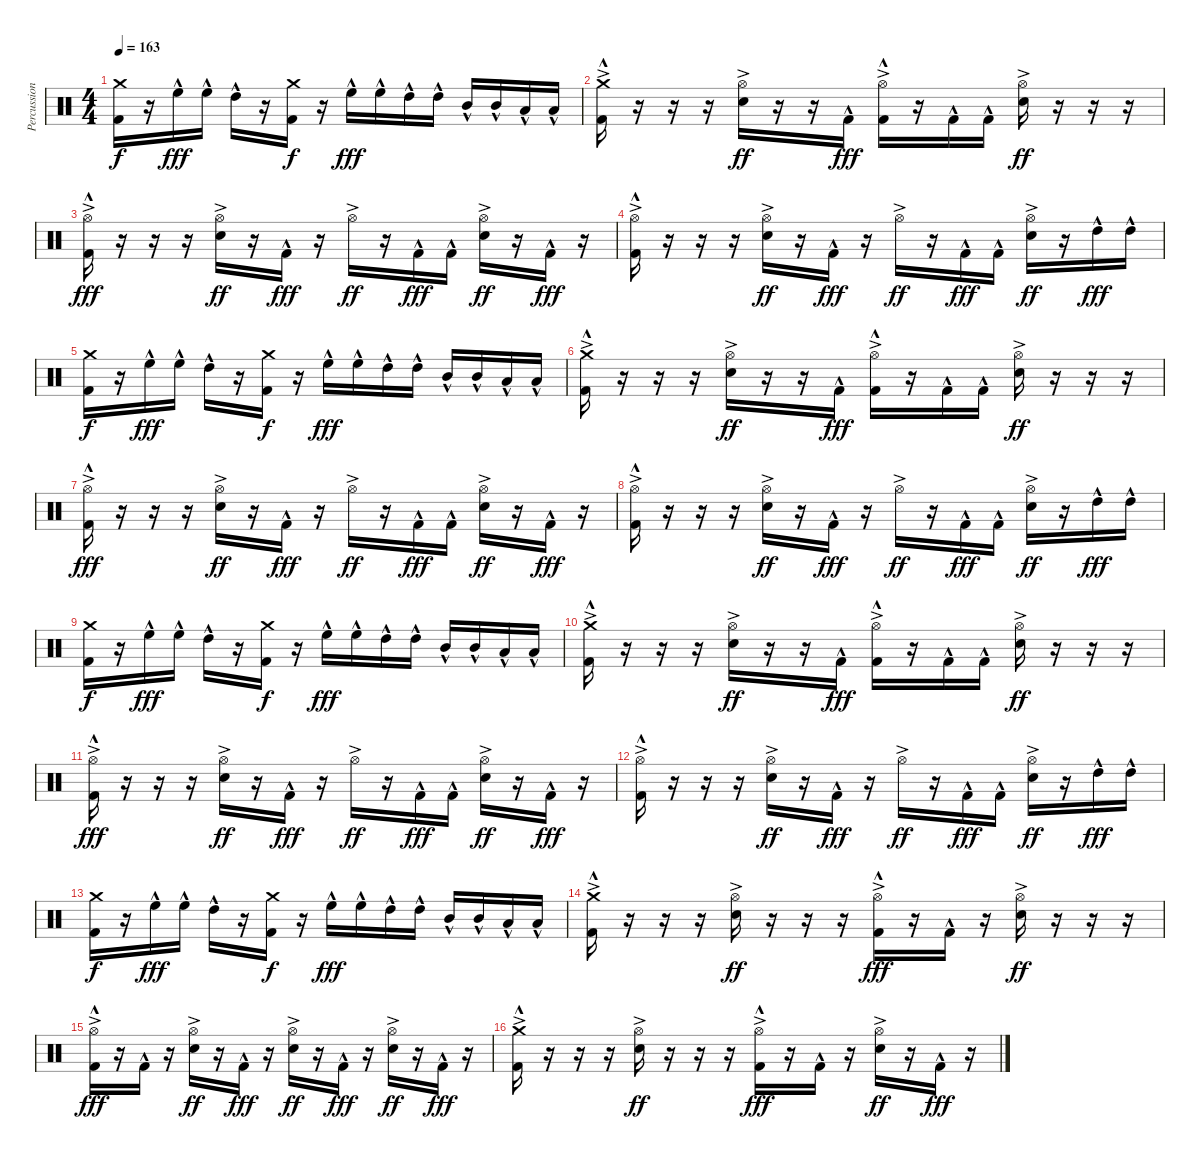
\track ("Percussion" "Percussion") {instrument percussion}
\staff {score}
\articulation defaults
\ts (4 4)
\tempo 163
\clef neutral
\ks c
("Crash medium (hit)" "Kick (hit) 2").16{dy f} r.16 "High Floor Tom (hit)"{hac}.16{dy fff} "High Floor Tom (hit)"{hac}.16 "High Tom (hit)"{hac}.16 r.16 ("Crash medium (hit)" "Kick (hit) 2").16{dy f} r.16 "High Floor Tom (hit)"{hac}.16{dy fff} "High Floor Tom (hit)"{hac}.16 "High Tom (hit)"{hac}.16 "High Tom (hit)"{hac}.16 "Mid Tom (hit)"{hac}.16 "Mid Tom (hit)"{hac}.16 "Low Tom (hit)"{hac}.16 "Low Tom (hit)"{hac}.16 |
("Crash medium (hit)"{ac} "Kick (hit) 2"{hac}).16 r.16 r.16 r.16 ("Hi-Hat (open)"{ac} "Snare (hit) 2"{ac}).16{dy ff} r.16 r.16 "Kick (hit) 2"{hac}.16{dy fff} ("Hi-Hat (open)"{ac} "Kick (hit) 2"{hac}).16 r.16 "Kick (hit) 2"{hac}.16 "Kick (hit) 2"{hac}.16 ("Hi-Hat (open)"{ac} "Snare (hit) 2"{ac}).16{dy ff} r.16 r.16 r.16 |
("Hi-Hat (open)"{ac} "Kick (hit) 2"{hac}).16{dy fff} r.16 r.16 r.16 ("Hi-Hat (open)"{ac} "Snare (hit) 2"{ac}).16{dy ff} r.16 "Kick (hit) 2"{hac}.16{dy fff} r.16 "Hi-Hat (open)"{ac}.16{dy ff} r.16 "Kick (hit) 2"{hac}.16{dy fff} "Kick (hit) 2"{hac}.16 ("Hi-Hat (open)"{ac} "Snare (hit) 2"{ac}).16{dy ff} r.16 "Kick (hit) 2"{hac}.16{dy fff} r.16 |
("Hi-Hat (open)"{ac} "Kick (hit) 2"{hac}).16 r.16 r.16 r.16 ("Hi-Hat (open)"{ac} "Snare (hit) 2"{ac}).16{dy ff} r.16 "Kick (hit) 2"{hac}.16{dy fff} r.16 "Hi-Hat (open)"{ac}.16{dy ff} r.16 "Kick (hit) 2"{hac}.16{dy fff} "Kick (hit) 2"{hac}.16 ("Hi-Hat (open)"{ac} "Snare (hit) 2"{ac}).16{dy ff} r.16 "High Tom (hit)"{hac}.16{dy fff} "High Tom (hit)"{hac}.16 |
("Crash medium (hit)" "Kick (hit) 2").16{dy f} r.16 "High Floor Tom (hit)"{hac}.16{dy fff} "High Floor Tom (hit)"{hac}.16 "High Tom (hit)"{hac}.16 r.16 ("Crash medium (hit)" "Kick (hit) 2").16{dy f} r.16 "High Floor Tom (hit)"{hac}.16{dy fff} "High Floor Tom (hit)"{hac}.16 "High Tom (hit)"{hac}.16 "High Tom (hit)"{hac}.16 "Mid Tom (hit)"{hac}.16 "Mid Tom (hit)"{hac}.16 "Low Tom (hit)"{hac}.16 "Low Tom (hit)"{hac}.16 |
("Crash medium (hit)"{ac} "Kick (hit) 2"{hac}).16 r.16 r.16 r.16 ("Hi-Hat (open)"{ac} "Snare (hit) 2"{ac}).16{dy ff} r.16 r.16 "Kick (hit) 2"{hac}.16{dy fff} ("Hi-Hat (open)"{ac} "Kick (hit) 2"{hac}).16 r.16 "Kick (hit) 2"{hac}.16 "Kick (hit) 2"{hac}.16 ("Hi-Hat (open)"{ac} "Snare (hit) 2"{ac}).16{dy ff} r.16 r.16 r.16 |
("Hi-Hat (open)"{ac} "Kick (hit) 2"{hac}).16{dy fff} r.16 r.16 r.16 ("Hi-Hat (open)"{ac} "Snare (hit) 2"{ac}).16{dy ff} r.16 "Kick (hit) 2"{hac}.16{dy fff} r.16 "Hi-Hat (open)"{ac}.16{dy ff} r.16 "Kick (hit) 2"{hac}.16{dy fff} "Kick (hit) 2"{hac}.16 ("Hi-Hat (open)"{ac} "Snare (hit) 2"{ac}).16{dy ff} r.16 "Kick (hit) 2"{hac}.16{dy fff} r.16 |
("Hi-Hat (open)"{ac} "Kick (hit) 2"{hac}).16 r.16 r.16 r.16 ("Hi-Hat (open)"{ac} "Snare (hit) 2"{ac}).16{dy ff} r.16 "Kick (hit) 2"{hac}.16{dy fff} r.16 "Hi-Hat (open)"{ac}.16{dy ff} r.16 "Kick (hit) 2"{hac}.16{dy fff} "Kick (hit) 2"{hac}.16 ("Hi-Hat (open)"{ac} "Snare (hit) 2"{ac}).16{dy ff} r.16 "High Tom (hit)"{hac}.16{dy fff} "High Tom (hit)"{hac}.16 |
("Crash medium (hit)" "Kick (hit) 2").16{dy f} r.16 "High Floor Tom (hit)"{hac}.16{dy fff} "High Floor Tom (hit)"{hac}.16 "High Tom (hit)"{hac}.16 r.16 ("Crash medium (hit)" "Kick (hit) 2").16{dy f} r.16 "High Floor Tom (hit)"{hac}.16{dy fff} "High Floor Tom (hit)"{hac}.16 "High Tom (hit)"{hac}.16 "High Tom (hit)"{hac}.16 "Mid Tom (hit)"{hac}.16 "Mid Tom (hit)"{hac}.16 "Low Tom (hit)"{hac}.16 "Low Tom (hit)"{hac}.16 |
("Crash medium (hit)"{ac} "Kick (hit) 2"{hac}).16 r.16 r.16 r.16 ("Hi-Hat (open)"{ac} "Snare (hit) 2"{ac}).16{dy ff} r.16 r.16 "Kick (hit) 2"{hac}.16{dy fff} ("Hi-Hat (open)"{ac} "Kick (hit) 2"{hac}).16 r.16 "Kick (hit) 2"{hac}.16 "Kick (hit) 2"{hac}.16 ("Hi-Hat (open)"{ac} "Snare (hit) 2"{ac}).16{dy ff} r.16 r.16 r.16 |
("Hi-Hat (open)"{ac} "Kick (hit) 2"{hac}).16{dy fff} r.16 r.16 r.16 ("Hi-Hat (open)"{ac} "Snare (hit) 2"{ac}).16{dy ff} r.16 "Kick (hit) 2"{hac}.16{dy fff} r.16 "Hi-Hat (open)"{ac}.16{dy ff} r.16 "Kick (hit) 2"{hac}.16{dy fff} "Kick (hit) 2"{hac}.16 ("Hi-Hat (open)"{ac} "Snare (hit) 2"{ac}).16{dy ff} r.16 "Kick (hit) 2"{hac}.16{dy fff} r.16 |
("Hi-Hat (open)"{ac} "Kick (hit) 2"{hac}).16 r.16 r.16 r.16 ("Hi-Hat (open)"{ac} "Snare (hit) 2"{ac}).16{dy ff} r.16 "Kick (hit) 2"{hac}.16{dy fff} r.16 "Hi-Hat (open)"{ac}.16{dy ff} r.16 "Kick (hit) 2"{hac}.16{dy fff} "Kick (hit) 2"{hac}.16 ("Hi-Hat (open)"{ac} "Snare (hit) 2"{ac}).16{dy ff} r.16 "High Tom (hit)"{hac}.16{dy fff} "High Tom (hit)"{hac}.16 |
("Crash medium (hit)" "Kick (hit) 2").16{dy f} r.16 "High Floor Tom (hit)"{hac}.16{dy fff} "High Floor Tom (hit)"{hac}.16 "High Tom (hit)"{hac}.16 r.16 ("Crash medium (hit)" "Kick (hit) 2").16{dy f} r.16 "High Floor Tom (hit)"{hac}.16{dy fff} "High Floor Tom (hit)"{hac}.16 "High Tom (hit)"{hac}.16 "High Tom (hit)"{hac}.16 "Mid Tom (hit)"{hac}.16 "Mid Tom (hit)"{hac}.16 "Low Tom (hit)"{hac}.16 "Low Tom (hit)"{hac}.16 |
("Crash medium (hit)"{ac} "Kick (hit) 2"{hac}).16 r.16 r.16 r.16 ("Hi-Hat (open)"{ac} "Snare (hit) 2"{ac}).16{dy ff} r.16 r.16 r.16 ("Hi-Hat (open)"{ac} "Kick (hit) 2"{hac}).16{dy fff} r.16 "Kick (hit) 2"{hac}.16 r.16 ("Hi-Hat (open)"{ac} "Snare (hit) 2"{ac}).16{dy ff} r.16 r.16 r.16 |
("Hi-Hat (open)"{ac} "Kick (hit) 2"{hac}).16{dy fff} r.16 "Kick (hit) 2"{hac}.16 r.16 ("Hi-Hat (open)"{ac} "Snare (hit) 2"{ac}).16{dy ff} r.16 "Kick (hit) 2"{hac}.16{dy fff} r.16 ("Hi-Hat (open)"{ac} "Snare (hit) 2").16{dy ff} r.16 "Kick (hit) 2"{hac}.16{dy fff} r.16 ("Hi-Hat (open)"{ac} "Snare (hit) 2"{ac}).16{dy ff} r.16 "Kick (hit) 2"{hac}.16{dy fff} r.16 |
("Crash medium (hit)"{ac} "Kick (hit) 2"{hac}).16 r.16 r.16 r.16 ("Hi-Hat (open)"{ac} "Snare (hit) 2"{ac}).16{dy ff} r.16 r.16 r.16 ("Hi-Hat (open)"{ac} "Kick (hit) 2"{hac}).16{dy fff} r.16 "Kick (hit) 2"{hac}.16 r.16 ("Hi-Hat (open)"{ac} "Snare (hit) 2"{ac}).16{dy ff} r.16 "Kick (hit) 2"{hac}.16{dy fff} r.16
